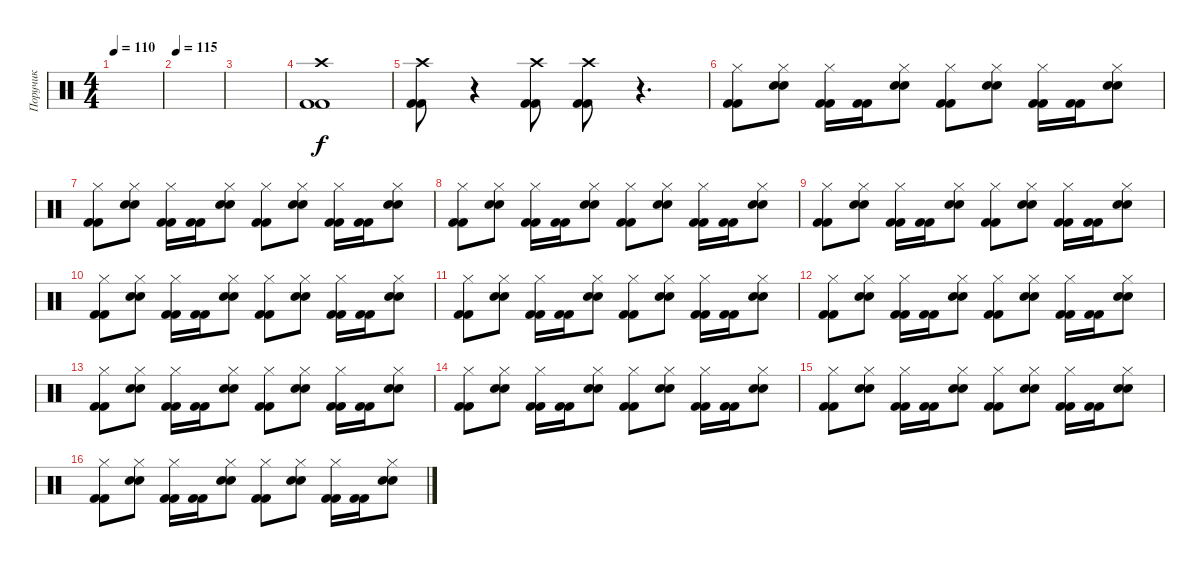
\track ("Поручик" "Поручик") {instrument percussion}
\staff {score}
\articulation defaults
\ts (4 4)
\tempo 110
\clef neutral
\ks c
|
\tempo 115
|
|
("Kick (hit) 2" "Kick (hit) 2" "Crash high (hit)").1 |
("Kick (hit) 2" "Crash high (hit)" "Kick (hit) 2").8 r.4 ("Kick (hit) 2" "Kick (hit) 2" "Crash high (hit)").8 ("Kick (hit) 2" "Kick (hit) 2" "Crash high (hit)").8 r.4{d} |
("Kick (hit) 2" "Hi-Hat (closed)" "Kick (hit) 2").8 ("Snare (hit) 2" "Hi-Hat (closed)" "Snare (hit) 2").8 ("Kick (hit) 2" "Hi-Hat (closed)" "Kick (hit) 2").16 ("Kick (hit) 2" "Kick (hit) 2").16 ("Snare (hit) 2" "Hi-Hat (closed)" "Snare (hit) 2").8 ("Kick (hit) 2" "Hi-Hat (closed)" "Kick (hit) 2").8 ("Snare (hit) 2" "Hi-Hat (closed)" "Snare (hit) 2").8 ("Kick (hit) 2" "Hi-Hat (closed)" "Kick (hit) 2").16 ("Kick (hit) 2" "Kick (hit) 2").16 ("Snare (hit) 2" "Hi-Hat (closed)" "Snare (hit) 2").8 |
("Kick (hit) 2" "Hi-Hat (closed)" "Kick (hit) 2").8 ("Snare (hit) 2" "Hi-Hat (closed)" "Snare (hit) 2").8 ("Kick (hit) 2" "Hi-Hat (closed)" "Kick (hit) 2").16 ("Kick (hit) 2" "Kick (hit) 2").16 ("Snare (hit) 2" "Hi-Hat (closed)" "Snare (hit) 2").8 ("Kick (hit) 2" "Hi-Hat (closed)" "Kick (hit) 2").8 ("Snare (hit) 2" "Hi-Hat (closed)" "Snare (hit) 2").8 ("Kick (hit) 2" "Hi-Hat (closed)" "Kick (hit) 2").16 ("Kick (hit) 2" "Kick (hit) 2").16 ("Snare (hit) 2" "Hi-Hat (closed)" "Snare (hit) 2").8 |
("Kick (hit) 2" "Hi-Hat (closed)" "Kick (hit) 2").8 ("Snare (hit) 2" "Hi-Hat (closed)" "Snare (hit) 2").8 ("Kick (hit) 2" "Hi-Hat (closed)" "Kick (hit) 2").16 ("Kick (hit) 2" "Kick (hit) 2").16 ("Snare (hit) 2" "Hi-Hat (closed)" "Snare (hit) 2").8 ("Kick (hit) 2" "Hi-Hat (closed)" "Kick (hit) 2").8 ("Snare (hit) 2" "Hi-Hat (closed)" "Snare (hit) 2").8 ("Kick (hit) 2" "Hi-Hat (closed)" "Kick (hit) 2").16 ("Kick (hit) 2" "Kick (hit) 2").16 ("Snare (hit) 2" "Hi-Hat (closed)" "Snare (hit) 2").8 |
("Kick (hit) 2" "Hi-Hat (closed)" "Kick (hit) 2").8 ("Snare (hit) 2" "Hi-Hat (closed)" "Snare (hit) 2").8 ("Kick (hit) 2" "Hi-Hat (closed)" "Kick (hit) 2").16 ("Kick (hit) 2" "Kick (hit) 2").16 ("Snare (hit) 2" "Hi-Hat (closed)" "Snare (hit) 2").8 ("Kick (hit) 2" "Hi-Hat (closed)" "Kick (hit) 2").8 ("Snare (hit) 2" "Hi-Hat (closed)" "Snare (hit) 2").8 ("Kick (hit) 2" "Hi-Hat (closed)" "Kick (hit) 2").16 ("Kick (hit) 2" "Kick (hit) 2").16 ("Snare (hit) 2" "Hi-Hat (closed)" "Snare (hit) 2").8 |
("Kick (hit) 2" "Hi-Hat (closed)" "Kick (hit) 2").8 ("Snare (hit) 2" "Hi-Hat (closed)" "Snare (hit) 2").8 ("Kick (hit) 2" "Hi-Hat (closed)" "Kick (hit) 2").16 ("Kick (hit) 2" "Kick (hit) 2").16 ("Snare (hit) 2" "Hi-Hat (closed)" "Snare (hit) 2").8 ("Kick (hit) 2" "Hi-Hat (closed)" "Kick (hit) 2").8 ("Snare (hit) 2" "Hi-Hat (closed)" "Snare (hit) 2").8 ("Kick (hit) 2" "Hi-Hat (closed)" "Kick (hit) 2").16 ("Kick (hit) 2" "Kick (hit) 2").16 ("Snare (hit) 2" "Hi-Hat (closed)" "Snare (hit) 2").8 |
("Kick (hit) 2" "Hi-Hat (closed)" "Kick (hit) 2").8 ("Snare (hit) 2" "Hi-Hat (closed)" "Snare (hit) 2").8 ("Kick (hit) 2" "Hi-Hat (closed)" "Kick (hit) 2").16 ("Kick (hit) 2" "Kick (hit) 2").16 ("Snare (hit) 2" "Hi-Hat (closed)" "Snare (hit) 2").8 ("Kick (hit) 2" "Hi-Hat (closed)" "Kick (hit) 2").8 ("Snare (hit) 2" "Hi-Hat (closed)" "Snare (hit) 2").8 ("Kick (hit) 2" "Hi-Hat (closed)" "Kick (hit) 2").16 ("Kick (hit) 2" "Kick (hit) 2").16 ("Snare (hit) 2" "Hi-Hat (closed)" "Snare (hit) 2").8 |
("Kick (hit) 2" "Hi-Hat (closed)" "Kick (hit) 2").8 ("Snare (hit) 2" "Hi-Hat (closed)" "Snare (hit) 2").8 ("Kick (hit) 2" "Hi-Hat (closed)" "Kick (hit) 2").16 ("Kick (hit) 2" "Kick (hit) 2").16 ("Snare (hit) 2" "Hi-Hat (closed)" "Snare (hit) 2").8 ("Kick (hit) 2" "Hi-Hat (closed)" "Kick (hit) 2").8 ("Snare (hit) 2" "Hi-Hat (closed)" "Snare (hit) 2").8 ("Kick (hit) 2" "Hi-Hat (closed)" "Kick (hit) 2").16 ("Kick (hit) 2" "Kick (hit) 2").16 ("Snare (hit) 2" "Hi-Hat (closed)" "Snare (hit) 2").8 |
("Kick (hit) 2" "Hi-Hat (closed)" "Kick (hit) 2").8 ("Snare (hit) 2" "Hi-Hat (closed)" "Snare (hit) 2").8 ("Kick (hit) 2" "Hi-Hat (closed)" "Kick (hit) 2").16 ("Kick (hit) 2" "Kick (hit) 2").16 ("Snare (hit) 2" "Hi-Hat (closed)" "Snare (hit) 2").8 ("Kick (hit) 2" "Hi-Hat (closed)" "Kick (hit) 2").8 ("Snare (hit) 2" "Hi-Hat (closed)" "Snare (hit) 2").8 ("Kick (hit) 2" "Hi-Hat (closed)" "Kick (hit) 2").16 ("Kick (hit) 2" "Kick (hit) 2").16 ("Snare (hit) 2" "Hi-Hat (closed)" "Snare (hit) 2").8 |
("Kick (hit) 2" "Hi-Hat (closed)" "Kick (hit) 2").8 ("Snare (hit) 2" "Hi-Hat (closed)" "Snare (hit) 2").8 ("Kick (hit) 2" "Hi-Hat (closed)" "Kick (hit) 2").16 ("Kick (hit) 2" "Kick (hit) 2").16 ("Snare (hit) 2" "Hi-Hat (closed)" "Snare (hit) 2").8 ("Kick (hit) 2" "Hi-Hat (closed)" "Kick (hit) 2").8 ("Snare (hit) 2" "Hi-Hat (closed)" "Snare (hit) 2").8 ("Kick (hit) 2" "Hi-Hat (closed)" "Kick (hit) 2").16 ("Kick (hit) 2" "Kick (hit) 2").16 ("Snare (hit) 2" "Hi-Hat (closed)" "Snare (hit) 2").8 |
("Kick (hit) 2" "Hi-Hat (closed)" "Kick (hit) 2").8 ("Snare (hit) 2" "Hi-Hat (closed)" "Snare (hit) 2").8 ("Kick (hit) 2" "Hi-Hat (closed)" "Kick (hit) 2").16 ("Kick (hit) 2" "Kick (hit) 2").16 ("Snare (hit) 2" "Hi-Hat (closed)" "Snare (hit) 2").8 ("Kick (hit) 2" "Hi-Hat (closed)" "Kick (hit) 2").8 ("Snare (hit) 2" "Hi-Hat (closed)" "Snare (hit) 2").8 ("Kick (hit) 2" "Hi-Hat (closed)" "Kick (hit) 2").16 ("Kick (hit) 2" "Kick (hit) 2").16 ("Snare (hit) 2" "Hi-Hat (closed)" "Snare (hit) 2").8 |
("Kick (hit) 2" "Hi-Hat (closed)" "Kick (hit) 2").8 ("Snare (hit) 2" "Hi-Hat (closed)" "Snare (hit) 2").8 ("Kick (hit) 2" "Hi-Hat (closed)" "Kick (hit) 2").16 ("Kick (hit) 2" "Kick (hit) 2").16 ("Snare (hit) 2" "Hi-Hat (closed)" "Snare (hit) 2").8 ("Kick (hit) 2" "Hi-Hat (closed)" "Kick (hit) 2").8 ("Snare (hit) 2" "Hi-Hat (closed)" "Snare (hit) 2").8 ("Kick (hit) 2" "Hi-Hat (closed)" "Kick (hit) 2").16 ("Kick (hit) 2" "Kick (hit) 2").16 ("Snare (hit) 2" "Hi-Hat (closed)" "Snare (hit) 2").8
